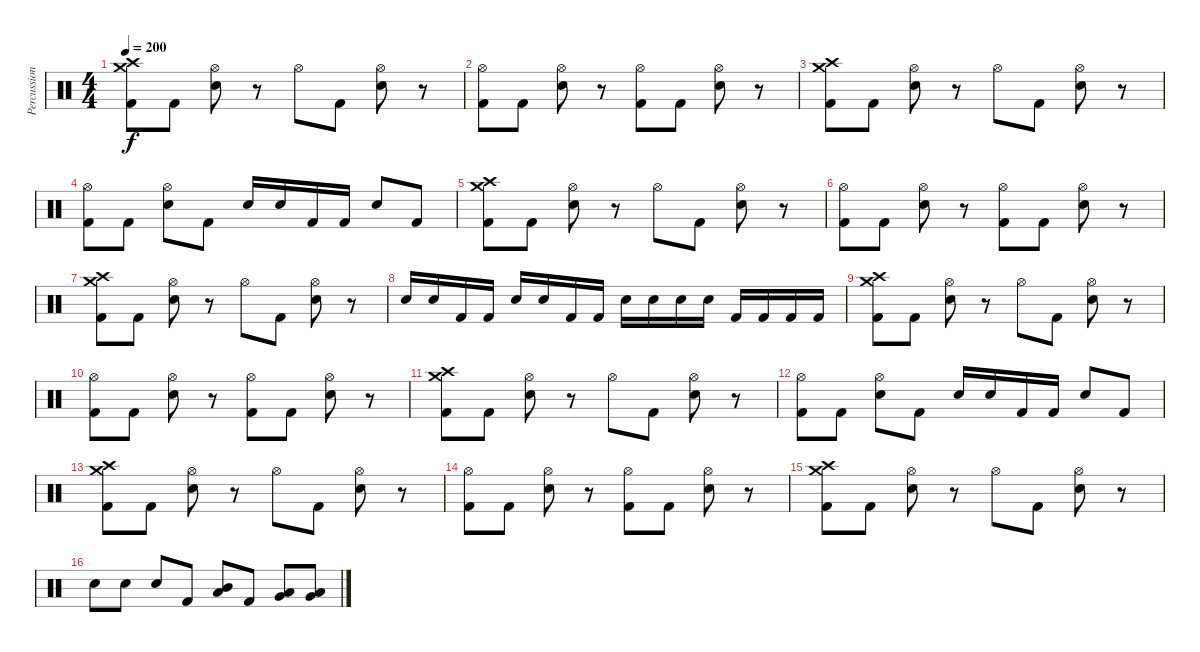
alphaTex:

\track ("Percussion" "Percussion") {instrument percussion}
\staff {score}
\articulation defaults
\ts (4 4)
\tempo 200
\clef neutral
\ks c
("Crash high (hit)" "Crash medium (hit)" "Kick (hit) 2").8{dy f} "Kick (hit) 2".8 ("Hi-Hat (open)" "Snare (hit) 2").8 r.8 "Hi-Hat (open)".8 "Kick (hit) 2".8 ("Hi-Hat (open)" "Snare (hit) 2").8 r.8 |
("Hi-Hat (open)" "Kick (hit) 2").8 "Kick (hit) 2".8 ("Hi-Hat (open)" "Snare (hit) 2").8 r.8 ("Hi-Hat (open)" "Kick (hit) 2").8 "Kick (hit) 2".8 ("Hi-Hat (open)" "Snare (hit) 2").8 r.8 |
("Crash high (hit)" "Crash medium (hit)" "Kick (hit) 2").8 "Kick (hit) 2".8 ("Hi-Hat (open)" "Snare (hit) 2").8 r.8 "Hi-Hat (open)".8 "Kick (hit) 2".8 ("Hi-Hat (open)" "Snare (hit) 2").8 r.8 |
("Hi-Hat (open)" "Kick (hit) 2").8 "Kick (hit) 2".8 ("Hi-Hat (open)" "Snare (hit) 2").8 "Kick (hit) 2".8 "Snare (hit) 2".16 "Snare (hit) 2".16 "Kick (hit) 2".16 "Kick (hit) 2".16 "Snare (hit) 2".8 "Kick (hit) 2".8 |
("Crash high (hit)" "Crash medium (hit)" "Kick (hit) 2").8 "Kick (hit) 2".8 ("Hi-Hat (open)" "Snare (hit) 2").8 r.8 "Hi-Hat (open)".8 "Kick (hit) 2".8 ("Hi-Hat (open)" "Snare (hit) 2").8 r.8 |
("Hi-Hat (open)" "Kick (hit) 2").8 "Kick (hit) 2".8 ("Hi-Hat (open)" "Snare (hit) 2").8 r.8 ("Hi-Hat (open)" "Kick (hit) 2").8 "Kick (hit) 2".8 ("Hi-Hat (open)" "Snare (hit) 2").8 r.8 |
("Crash high (hit)" "Crash medium (hit)" "Kick (hit) 2").8 "Kick (hit) 2".8 ("Hi-Hat (open)" "Snare (hit) 2").8 r.8 "Hi-Hat (open)".8 "Kick (hit) 2".8 ("Hi-Hat (open)" "Snare (hit) 2").8 r.8 |
"Snare (hit) 2".16 "Snare (hit) 2".16 "Kick (hit) 2".16 "Kick (hit) 2".16 "Snare (hit) 2".16 "Snare (hit) 2".16 "Kick (hit) 2".16 "Kick (hit) 2".16 "Snare (hit) 2".16 "Snare (hit) 2".16 "Snare (hit) 2".16 "Snare (hit) 2".16 "Kick (hit) 2".16 "Kick (hit) 2".16 "Kick (hit) 2".16 "Kick (hit) 2".16 |
("Crash high (hit)" "Crash medium (hit)" "Kick (hit) 2").8 "Kick (hit) 2".8 ("Hi-Hat (open)" "Snare (hit) 2").8 r.8 "Hi-Hat (open)".8 "Kick (hit) 2".8 ("Hi-Hat (open)" "Snare (hit) 2").8 r.8 |
("Hi-Hat (open)" "Kick (hit) 2").8 "Kick (hit) 2".8 ("Hi-Hat (open)" "Snare (hit) 2").8 r.8 ("Hi-Hat (open)" "Kick (hit) 2").8 "Kick (hit) 2".8 ("Hi-Hat (open)" "Snare (hit) 2").8 r.8 |
("Crash high (hit)" "Crash medium (hit)" "Kick (hit) 2").8 "Kick (hit) 2".8 ("Hi-Hat (open)" "Snare (hit) 2").8 r.8 "Hi-Hat (open)".8 "Kick (hit) 2".8 ("Hi-Hat (open)" "Snare (hit) 2").8 r.8 |
("Hi-Hat (open)" "Kick (hit) 2").8 "Kick (hit) 2".8 ("Hi-Hat (open)" "Snare (hit) 2").8 "Kick (hit) 2".8 "Snare (hit) 2".16 "Snare (hit) 2".16 "Kick (hit) 2".16 "Kick (hit) 2".16 "Snare (hit) 2".8 "Kick (hit) 2".8 |
("Crash high (hit)" "Crash medium (hit)" "Kick (hit) 2").8 "Kick (hit) 2".8 ("Hi-Hat (open)" "Snare (hit) 2").8 r.8 "Hi-Hat (open)".8 "Kick (hit) 2".8 ("Hi-Hat (open)" "Snare (hit) 2").8 r.8 |
("Hi-Hat (open)" "Kick (hit) 2").8 "Kick (hit) 2".8 ("Hi-Hat (open)" "Snare (hit) 2").8 r.8 ("Hi-Hat (open)" "Kick (hit) 2").8 "Kick (hit) 2".8 ("Hi-Hat (open)" "Snare (hit) 2").8 r.8 |
("Crash high (hit)" "Crash medium (hit)" "Kick (hit) 2").8 "Kick (hit) 2".8 ("Hi-Hat (open)" "Snare (hit) 2").8 r.8 "Hi-Hat (open)".8 "Kick (hit) 2".8 ("Hi-Hat (open)" "Snare (hit) 2").8 r.8 |
"Snare (hit) 2".8 "Snare (hit) 2".8 "Snare (hit) 2".8 "Kick (hit) 2".8 ("Mid Tom (hit)" "Low Tom (hit)").8 "Kick (hit) 2".8 ("Very Low Tom (hit)" "Low Tom (hit)").8 ("Very Low Tom (hit)" "Low Tom (hit)").8
